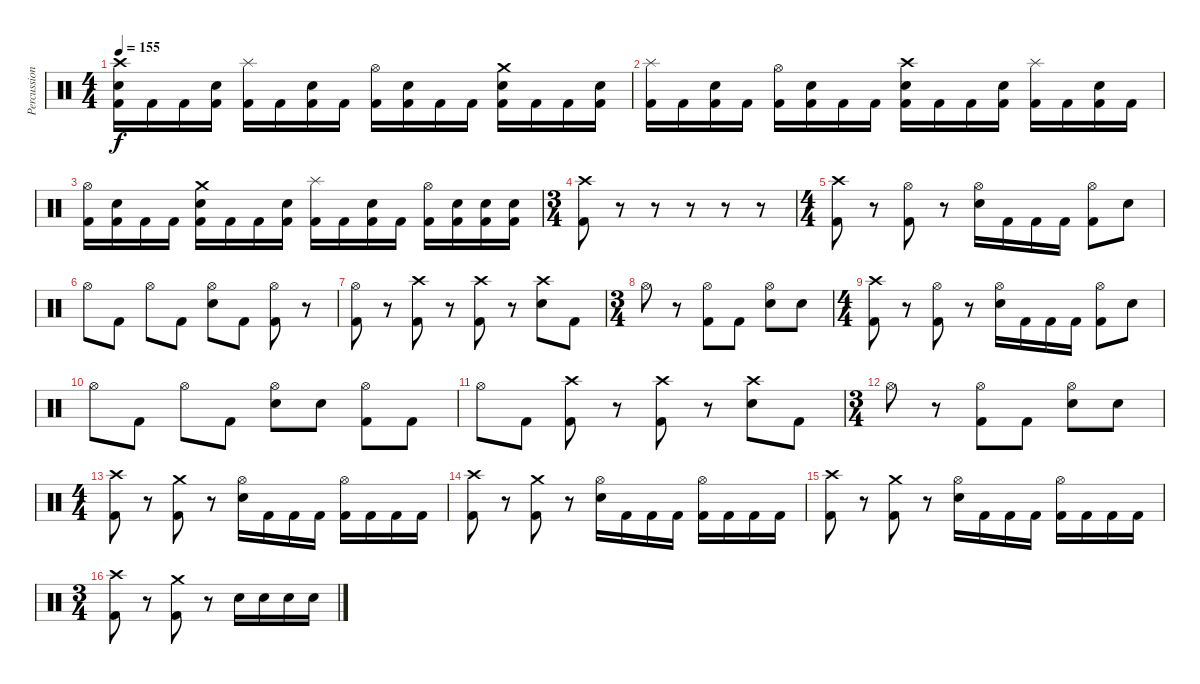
\track ("Percussion" "Percussion") {instrument percussion}
\staff {score}
\articulation defaults
\ts (4 4)
\tempo 155
\clef neutral
\ks c
("Crash high (hit)" "Snare (hit) 2" "Kick (hit) 2").16{dy f} "Kick (hit) 2".16 "Kick (hit) 2".16 ("Snare (hit) 2" "Kick (hit) 2").16 ("Splash (hit)" "Kick (hit) 2").16 "Kick (hit) 2".16 ("Snare (hit) 2" "Kick (hit) 2").16 "Kick (hit) 2".16 ("Hi-Hat (open)" "Kick (hit) 2").16 ("Snare (hit) 2" "Kick (hit) 2").16 "Kick (hit) 2".16 "Kick (hit) 2".16 ("Crash medium (hit)" "Snare (hit) 2" "Kick (hit) 2").16 "Kick (hit) 2".16 "Kick (hit) 2".16 ("Snare (hit) 2" "Kick (hit) 2").16 |
("Splash (hit)" "Kick (hit) 2").16 "Kick (hit) 2".16 ("Snare (hit) 2" "Kick (hit) 2").16 "Kick (hit) 2".16 ("Hi-Hat (open)" "Kick (hit) 2").16 ("Snare (hit) 2" "Kick (hit) 2").16 "Kick (hit) 2".16 "Kick (hit) 2".16 ("Crash high (hit)" "Snare (hit) 2" "Kick (hit) 2").16 "Kick (hit) 2".16 "Kick (hit) 2".16 ("Snare (hit) 2" "Kick (hit) 2").16 ("Splash (hit)" "Kick (hit) 2").16 "Kick (hit) 2".16 ("Snare (hit) 2" "Kick (hit) 2").16 "Kick (hit) 2".16 |
("Hi-Hat (open)" "Kick (hit) 2").16 ("Snare (hit) 2" "Kick (hit) 2").16 "Kick (hit) 2".16 "Kick (hit) 2".16 ("Crash medium (hit)" "Snare (hit) 2" "Kick (hit) 2").16 "Kick (hit) 2".16 "Kick (hit) 2".16 ("Snare (hit) 2" "Kick (hit) 2").16 ("Splash (hit)" "Kick (hit) 2").16 "Kick (hit) 2".16 ("Snare (hit) 2" "Kick (hit) 2").16 "Kick (hit) 2".16 ("Hi-Hat (open)" "Kick (hit) 2").16 ("Snare (hit) 2" "Kick (hit) 2").16 ("Snare (hit) 2" "Kick (hit) 2").16 ("Snare (hit) 2" "Kick (hit) 2").16 |
\ts (3 4)
("Crash high (hit)" "Kick (hit) 2").8 r.8 r.8 r.8 r.8 r.8 |
\ts (4 4)
("Crash high (hit)" "Kick (hit) 2").8 r.8 ("Hi-Hat (open)" "Kick (hit) 2").8 r.8 ("Hi-Hat (open)" "Snare (hit) 2").16 "Kick (hit) 2".16 "Kick (hit) 2".16 "Kick (hit) 2".16 ("Hi-Hat (open)" "Kick (hit) 2").8 "Snare (hit) 2".8 |
"Hi-Hat (open)".8 "Kick (hit) 2".8 "Hi-Hat (open)".8 "Kick (hit) 2".8 ("Hi-Hat (open)" "Snare (hit) 2").8 "Kick (hit) 2".8 ("Hi-Hat (open)" "Kick (hit) 2").8 r.8 |
("Hi-Hat (open)" "Kick (hit) 2").8 r.8 ("Crash high (hit)" "Kick (hit) 2").8 r.8{volume 0} ("Crash high (hit)" "Kick (hit) 2").8{volume 16} r.8{volume 0} ("Crash high (hit)" "Snare (hit) 2").8{volume 16} "Kick (hit) 2".8 |
\ts (3 4)
"Hi-Hat (open)".8 r.8 ("Hi-Hat (open)" "Kick (hit) 2").8 "Kick (hit) 2".8 ("Hi-Hat (open)" "Snare (hit) 2").8 "Snare (hit) 2".8 |
\ts (4 4)
("Crash high (hit)" "Kick (hit) 2").8 r.8 ("Hi-Hat (open)" "Kick (hit) 2").8 r.8 ("Hi-Hat (open)" "Snare (hit) 2").16 "Kick (hit) 2".16 "Kick (hit) 2".16 "Kick (hit) 2".16 ("Hi-Hat (open)" "Kick (hit) 2").8 "Snare (hit) 2".8 |
"Hi-Hat (open)".8 "Kick (hit) 2".8 "Hi-Hat (open)".8 "Kick (hit) 2".8 ("Hi-Hat (open)" "Snare (hit) 2").8 "Snare (hit) 2".8 ("Hi-Hat (open)" "Kick (hit) 2").8 "Kick (hit) 2".8 |
"Hi-Hat (open)".8 "Kick (hit) 2".8 ("Crash high (hit)" "Kick (hit) 2").8 r.8{volume 0} ("Crash high (hit)" "Kick (hit) 2").8{volume 16} r.8{volume 0} ("Crash high (hit)" "Snare (hit) 2").8{volume 16} "Kick (hit) 2".8 |
\ts (3 4)
"Hi-Hat (open)".8 r.8 ("Hi-Hat (open)" "Kick (hit) 2").8 "Kick (hit) 2".8 ("Hi-Hat (open)" "Snare (hit) 2").8 "Snare (hit) 2".8 |
\ts (4 4)
("Crash high (hit)" "Kick (hit) 2").8 r.8 ("Crash medium (hit)" "Kick (hit) 2").8 r.8 ("Hi-Hat (open)" "Snare (hit) 2").16 "Kick (hit) 2".16 "Kick (hit) 2".16 "Kick (hit) 2".16 ("Hi-Hat (open)" "Kick (hit) 2").16 "Kick (hit) 2".16 "Kick (hit) 2".16 "Kick (hit) 2".16 |
("Crash high (hit)" "Kick (hit) 2").8 r.8 ("Crash medium (hit)" "Kick (hit) 2").8 r.8 ("Hi-Hat (open)" "Snare (hit) 2").16 "Kick (hit) 2".16 "Kick (hit) 2".16 "Kick (hit) 2".16 ("Hi-Hat (open)" "Kick (hit) 2").16 "Kick (hit) 2".16 "Kick (hit) 2".16 "Kick (hit) 2".16 |
("Crash high (hit)" "Kick (hit) 2").8 r.8 ("Crash medium (hit)" "Kick (hit) 2").8 r.8 ("Hi-Hat (open)" "Snare (hit) 2").16 "Kick (hit) 2".16 "Kick (hit) 2".16 "Kick (hit) 2".16 ("Hi-Hat (open)" "Kick (hit) 2").16 "Kick (hit) 2".16 "Kick (hit) 2".16 "Kick (hit) 2".16 |
\ts (3 4)
("Crash high (hit)" "Kick (hit) 2").8 r.8 ("Crash medium (hit)" "Kick (hit) 2").8 r.8 "Snare (hit) 2".16 "Snare (hit) 2".16 "Snare (hit) 2".16 "Snare (hit) 2".16
